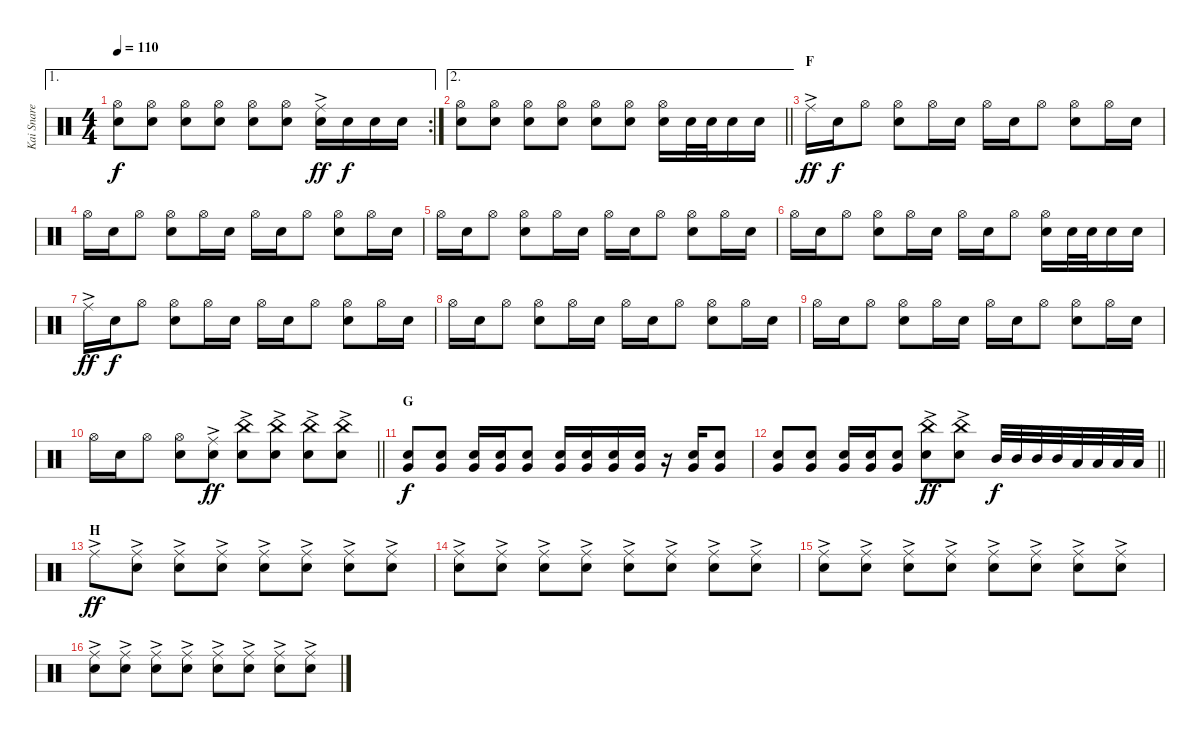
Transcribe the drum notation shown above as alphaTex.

\track ("Kai Snare" "Kai Snare") {instrument percussion}
\staff {score}
\articulation defaults
\ae 1
\rc 2
\ts (4 4)
\tempo 110
\clef neutral
\ks c
("Hi-Hat (open)" "Snare (hit) 2").8{dy f} ("Hi-Hat (open)" "Snare (hit) 2").8 ("Hi-Hat (open)" "Snare (hit) 2").8 ("Hi-Hat (open)" "Snare (hit) 2").8 ("Hi-Hat (open)" "Snare (hit) 2").8 ("Hi-Hat (open)" "Snare (hit) 2").8 ("Ride (middle)"{ac} "Snare (hit) 2").16{dy ff} "Snare (hit) 2".16{dy f} "Snare (hit) 2".16 "Snare (hit) 2".16 |
\ae 2
\barLineRight lightlight
("Hi-Hat (open)" "Snare (hit) 2").8 ("Hi-Hat (open)" "Snare (hit) 2").8 ("Hi-Hat (open)" "Snare (hit) 2").8 ("Hi-Hat (open)" "Snare (hit) 2").8 ("Hi-Hat (open)" "Snare (hit) 2").8 ("Hi-Hat (open)" "Snare (hit) 2").8 ("Hi-Hat (open)" "Snare (hit) 2").16 "Snare (hit) 2".32 "Snare (hit) 2".32 "Snare (hit) 2".16 "Snare (hit) 2".16 |
\section ("" "F")
"Ride (middle)"{ac}.16{dy ff} "Snare (hit) 2".16{dy f} "Hi-Hat (open)".8 ("Hi-Hat (open)" "Snare (hit) 2").8 "Hi-Hat (open)".16 "Snare (hit) 2".16 "Hi-Hat (open)".16 "Snare (hit) 2".16 "Hi-Hat (open)".8 ("Hi-Hat (open)" "Snare (hit) 2").8 "Hi-Hat (open)".16 "Snare (hit) 2".16 |
"Hi-Hat (open)".16 "Snare (hit) 2".16 "Hi-Hat (open)".8 ("Hi-Hat (open)" "Snare (hit) 2").8 "Hi-Hat (open)".16 "Snare (hit) 2".16 "Hi-Hat (open)".16 "Snare (hit) 2".16 "Hi-Hat (open)".8 ("Hi-Hat (open)" "Snare (hit) 2").8 "Hi-Hat (open)".16 "Snare (hit) 2".16 |
"Hi-Hat (open)".16 "Snare (hit) 2".16 "Hi-Hat (open)".8 ("Hi-Hat (open)" "Snare (hit) 2").8 "Hi-Hat (open)".16 "Snare (hit) 2".16 "Hi-Hat (open)".16 "Snare (hit) 2".16 "Hi-Hat (open)".8 ("Hi-Hat (open)" "Snare (hit) 2").8 "Hi-Hat (open)".16 "Snare (hit) 2".16 |
"Hi-Hat (open)".16 "Snare (hit) 2".16 "Hi-Hat (open)".8 ("Hi-Hat (open)" "Snare (hit) 2").8 "Hi-Hat (open)".16 "Snare (hit) 2".16 "Hi-Hat (open)".16 "Snare (hit) 2".16 "Hi-Hat (open)".8 ("Hi-Hat (open)" "Snare (hit) 2").16 "Snare (hit) 2".32 "Snare (hit) 2".32 "Snare (hit) 2".16 "Snare (hit) 2".16 |
"Ride (middle)"{ac}.16{dy ff} "Snare (hit) 2".16{dy f} "Hi-Hat (open)".8 ("Hi-Hat (open)" "Snare (hit) 2").8 "Hi-Hat (open)".16 "Snare (hit) 2".16 "Hi-Hat (open)".16 "Snare (hit) 2".16 "Hi-Hat (open)".8 ("Hi-Hat (open)" "Snare (hit) 2").8 "Hi-Hat (open)".16 "Snare (hit) 2".16 |
"Hi-Hat (open)".16 "Snare (hit) 2".16 "Hi-Hat (open)".8 ("Hi-Hat (open)" "Snare (hit) 2").8 "Hi-Hat (open)".16 "Snare (hit) 2".16 "Hi-Hat (open)".16 "Snare (hit) 2".16 "Hi-Hat (open)".8 ("Hi-Hat (open)" "Snare (hit) 2").8 "Hi-Hat (open)".16 "Snare (hit) 2".16 |
"Hi-Hat (open)".16 "Snare (hit) 2".16 "Hi-Hat (open)".8 ("Hi-Hat (open)" "Snare (hit) 2").8 "Hi-Hat (open)".16 "Snare (hit) 2".16 "Hi-Hat (open)".16 "Snare (hit) 2".16 "Hi-Hat (open)".8 ("Hi-Hat (open)" "Snare (hit) 2").8 "Hi-Hat (open)".16 "Snare (hit) 2".16 |
\barLineRight lightlight "Hi-Hat (open)".16 "Snare (hit) 2".16 "Hi-Hat (open)".8
("Hi-Hat (open)" "Snare (hit) 2").8 ("Ride (middle)"{ac} "Snare (hit) 2").8{dy ff} ("China (hit)"{ac} "Snare (hit) 2").8 ("China (hit)"{ac} "Snare (hit) 2").8 ("China (hit)"{ac} "Snare (hit) 2").8 ("China (hit)"{ac} "Snare (hit) 2").8 |
\section ("" "G")
("Very Low Tom (hit)" "Hand Clap (hit)").8{dy f} ("Very Low Tom (hit)" "Hand Clap (hit)").8 ("Very Low Tom (hit)" "Hand Clap (hit)").16 ("Very Low Tom (hit)" "Hand Clap (hit)").16 ("Very Low Tom (hit)" "Hand Clap (hit)").8 ("Very Low Tom (hit)" "Hand Clap (hit)").16 ("Very Low Tom (hit)" "Hand Clap (hit)").16 ("Very Low Tom (hit)" "Hand Clap (hit)").16 ("Very Low Tom (hit)" "Hand Clap (hit)").16 r.16 ("Very Low Tom (hit)" "Hand Clap (hit)").16 ("Very Low Tom (hit)" "Hand Clap (hit)").8 |
\barLineRight lightlight
("Very Low Tom (hit)" "Hand Clap (hit)").8 ("Very Low Tom (hit)" "Hand Clap (hit)").8 ("Very Low Tom (hit)" "Hand Clap (hit)").16 ("Very Low Tom (hit)" "Hand Clap (hit)").16 ("Very Low Tom (hit)" "Hand Clap (hit)").8 ("China (hit)"{ac} "Snare (hit) 2").8{dy ff} ("China (hit)"{ac} "Snare (hit) 2").8 "Mid Tom (hit)".32{dy f} "Mid Tom (hit)".32 "Mid Tom (hit)".32 "Mid Tom (hit)".32 "Low Tom (hit)".32 "Low Tom (hit)".32 "Low Tom (hit)".32 "Low Tom (hit)".32 |
\section ("" "H")
"Ride (middle)"{ac}.8{dy ff} ("Ride (middle)"{ac} "Snare (hit) 2").8 ("Ride (middle)"{ac} "Snare (hit) 2").8 ("Ride (middle)"{ac} "Snare (hit) 2").8 ("Ride (middle)"{ac} "Snare (hit) 2").8 ("Ride (middle)"{ac} "Snare (hit) 2").8 ("Ride (middle)"{ac} "Snare (hit) 2").8 ("Ride (middle)"{ac} "Snare (hit) 2").8 |
("Ride (middle)"{ac} "Snare (hit) 2").8 ("Ride (middle)"{ac} "Snare (hit) 2").8 ("Ride (middle)"{ac} "Snare (hit) 2").8 ("Ride (middle)"{ac} "Snare (hit) 2").8 ("Ride (middle)"{ac} "Snare (hit) 2").8 ("Ride (middle)"{ac} "Snare (hit) 2").8 ("Ride (middle)"{ac} "Snare (hit) 2").8 ("Ride (middle)"{ac} "Snare (hit) 2").8 |
("Ride (middle)"{ac} "Snare (hit) 2").8 ("Ride (middle)"{ac} "Snare (hit) 2").8 ("Ride (middle)"{ac} "Snare (hit) 2").8 ("Ride (middle)"{ac} "Snare (hit) 2").8 ("Ride (middle)"{ac} "Snare (hit) 2").8 ("Ride (middle)"{ac} "Snare (hit) 2").8 ("Ride (middle)"{ac} "Snare (hit) 2").8 ("Ride (middle)"{ac} "Snare (hit) 2").8 |
("Ride (middle)"{ac} "Snare (hit) 2").8 ("Ride (middle)"{ac} "Snare (hit) 2").8 ("Ride (middle)"{ac} "Snare (hit) 2").8 ("Ride (middle)"{ac} "Snare (hit) 2").8 ("Ride (middle)"{ac} "Snare (hit) 2").8 ("Ride (middle)"{ac} "Snare (hit) 2").8 ("Ride (middle)"{ac} "Snare (hit) 2").8 ("Ride (middle)"{ac} "Snare (hit) 2").8
